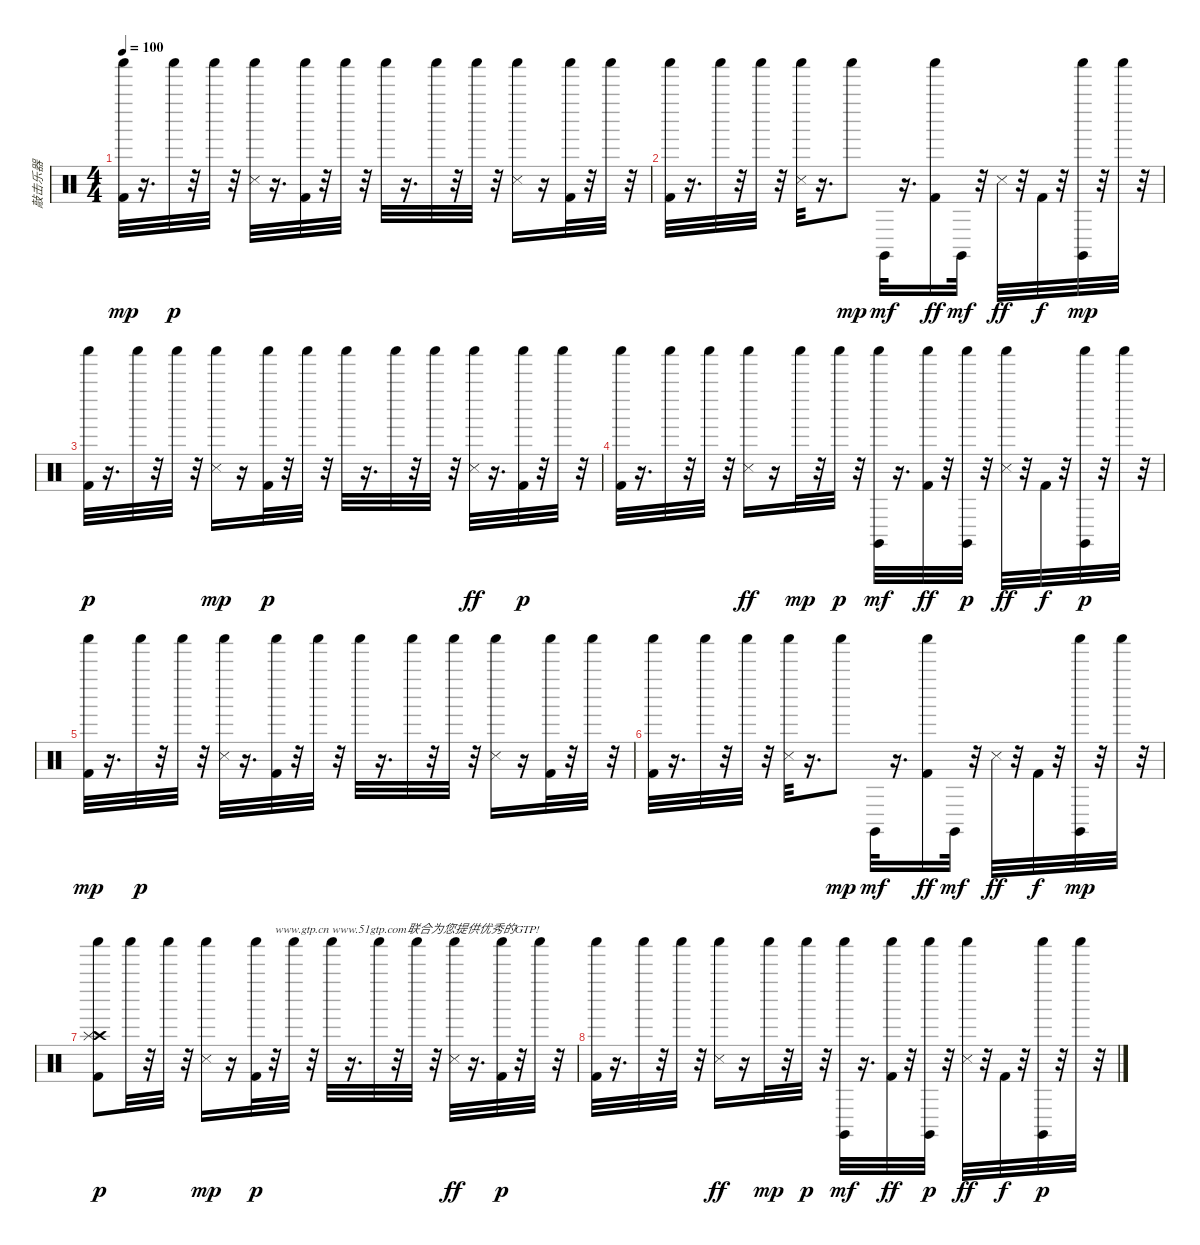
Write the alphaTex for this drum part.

\track ("敲击乐器" "敲击乐器") {instrument percussion}
\staff {score}
\articulation defaults
\ts (4 4)
\tempo 100
\clef neutral
\ks c
("Kick (hit) 2" "Shaker (hit)").32{dy mp} r.16{d} "Shaker (hit)".32{dy p} r.32 "Shaker (hit)".32 r.32 ("Snare (side stick) 3" "Shaker (hit)").32 r.16{d} ("Kick (hit) 2" "Shaker (hit)").32 r.32 "Shaker (hit)".32 r.32 "Shaker (hit)".32 r.16{d} "Shaker (hit)".32 r.32 "Shaker (hit)".32 r.32 ("Snare (side stick) 3" "Shaker (hit)").16 r.16 ("Kick (hit) 2" "Shaker (hit)").32 r.32 "Shaker (hit)".32 r.32 |
("Shaker (hit)" "Kick (hit) 2").32 r.16{d} "Shaker (hit)".32 r.32 "Shaker (hit)".32 r.32 ("Snare (side stick) 3" "Shaker (hit)").32 r.16{d} "Shaker (hit)".8{dy mp} "Claves (hit)".32{dy mf} r.16{d} ("Shaker (hit)" "Kick (hit) 2").16{dy ff} "Claves (hit)".32{dy mf} r.32 "Snare (side stick) 3".32{dy ff} r.32 "Kick (hit) 2".32{dy f} r.32 ("Claves (hit)" "Shaker (hit)").32{dy mp} r.32 "Shaker (hit)".32 r.32 |
("Shaker (hit)" "Kick (hit) 2").32{dy p} r.16{d} "Shaker (hit)".32 r.32 "Shaker (hit)".32 r.32 ("Shaker (hit)" "Snare (side stick) 3").16{dy mp} r.16 ("Kick (hit) 2" "Shaker (hit)").32{dy p} r.32 "Shaker (hit)".32 r.32 "Shaker (hit)".32 r.16{d} "Shaker (hit)".32 r.32 "Shaker (hit)".32 r.32 ("Shaker (hit)" "Snare (side stick) 3").32{dy ff} r.16{d} ("Kick (hit) 2" "Shaker (hit)").32{dy p} r.32 "Shaker (hit)".32 r.32 |
("Shaker (hit)" "Kick (hit) 2").32 r.16{d} "Shaker (hit)".32 r.32 "Shaker (hit)".32 r.32 ("Shaker (hit)" "Snare (side stick) 3").16{dy ff} r.16 "Shaker (hit)".32{dy mp} r.32 "Shaker (hit)".32{dy p} r.32 ("Shaker (hit)" "Claves (hit)").32{dy mf} r.16{d} ("Shaker (hit)" "Kick (hit) 2").32{dy ff} r.32 ("Claves (hit)" "Shaker (hit)").32{dy p} r.32 ("Shaker (hit)" "Snare (side stick) 3").32{dy ff} r.32 "Kick (hit) 2".32{dy f} r.32 ("Claves (hit)" "Shaker (hit)").32{dy p} r.32 "Shaker (hit)".32 r.32 |
("Kick (hit) 2" "Shaker (hit)").32{dy mp} r.16{d} "Shaker (hit)".32{dy p} r.32 "Shaker (hit)".32 r.32 ("Snare (side stick) 3" "Shaker (hit)").32 r.16{d} ("Kick (hit) 2" "Shaker (hit)").32 r.32 "Shaker (hit)".32 r.32 "Shaker (hit)".32 r.16{d} "Shaker (hit)".32 r.32 "Shaker (hit)".32 r.32 ("Snare (side stick) 3" "Shaker (hit)").16 r.16 ("Kick (hit) 2" "Shaker (hit)").32 r.32 "Shaker (hit)".32 r.32 |
("Shaker (hit)" "Kick (hit) 2").32 r.16{d} "Shaker (hit)".32 r.32 "Shaker (hit)".32 r.32 ("Snare (side stick) 3" "Shaker (hit)").32 r.16{d} "Shaker (hit)".8{dy mp} "Claves (hit)".32{dy mf} r.16{d} ("Shaker (hit)" "Kick (hit) 2").16{dy ff} "Claves (hit)".32{dy mf} r.32 "Snare (side stick) 3".32{dy ff} r.32 "Kick (hit) 2".32{dy f} r.32 ("Claves (hit)" "Shaker (hit)").32{dy mp} r.32 "Shaker (hit)".32 r.32 |
("Crash high (hit)" "Splash (hit)" "Shaker (hit)" "Kick (hit) 2").8{dy p} "Shaker (hit)".32 r.32 "Shaker (hit)".32 r.32 ("Shaker (hit)" "Snare (side stick) 3").16{dy mp} r.16 ("Kick (hit) 2" "Shaker (hit)").32{dy p} r.32{txt "www.gtp.cn www.51gtp.com联合为您提供优秀的GTP!"} "Shaker (hit)".32 r.32 "Shaker (hit)".32 r.16{d} "Shaker (hit)".32 r.32 "Shaker (hit)".32 r.32 ("Shaker (hit)" "Snare (side stick) 3").32{dy ff} r.16{d} ("Kick (hit) 2" "Shaker (hit)").32{dy p} r.32 "Shaker (hit)".32 r.32 |
("Shaker (hit)" "Kick (hit) 2").32 r.16{d} "Shaker (hit)".32 r.32 "Shaker (hit)".32 r.32 ("Shaker (hit)" "Snare (side stick) 3").16{dy ff} r.16 "Shaker (hit)".32{dy mp} r.32 "Shaker (hit)".32{dy p} r.32 ("Shaker (hit)" "Claves (hit)").32{dy mf} r.16{d} ("Shaker (hit)" "Kick (hit) 2").32{dy ff} r.32 ("Claves (hit)" "Shaker (hit)").32{dy p} r.32 ("Shaker (hit)" "Snare (side stick) 3").32{dy ff} r.32 "Kick (hit) 2".32{dy f} r.32 ("Claves (hit)" "Shaker (hit)").32{dy p} r.32 "Shaker (hit)".32 r.32
